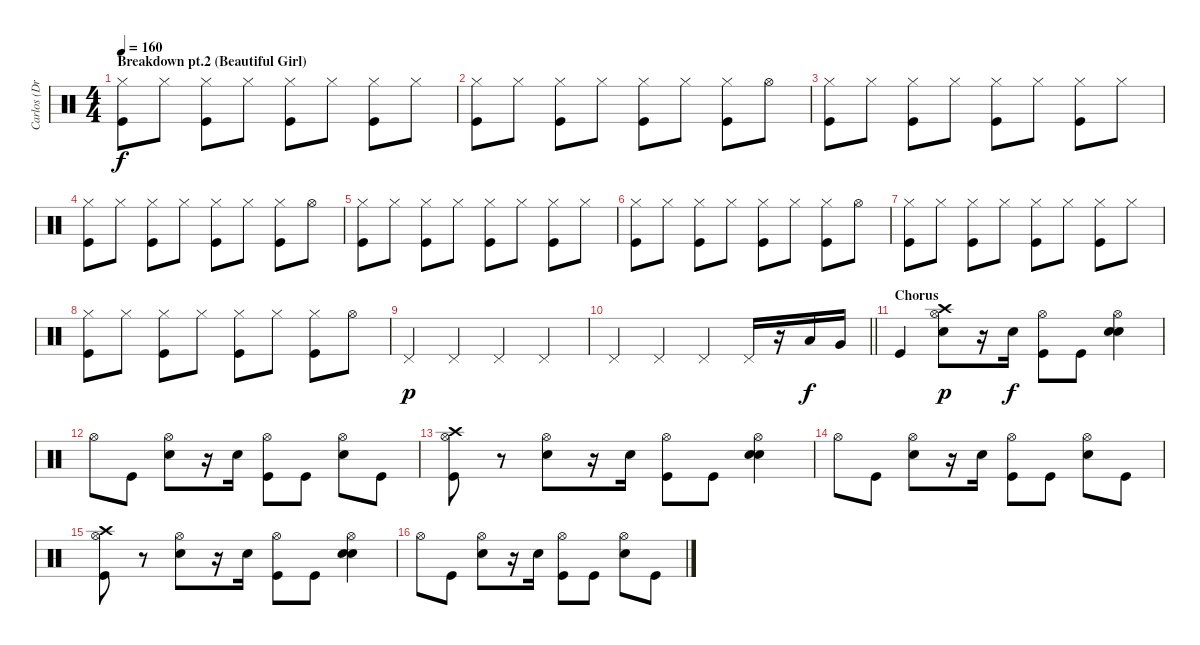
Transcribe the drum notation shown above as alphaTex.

\track ("Carlos (Drums)" "Carlos (Dr") {instrument percussion}
\staff {score}
\articulation defaults
\ts (4 4)
\section ("" "Breakdown pt.2 (Beautiful Girl)")
\tempo 160
\clef neutral
\ks c
("Hi-Hat (closed)" "Kick (hit)").8{dy f} "Hi-Hat (closed)".8 ("Hi-Hat (closed)" "Kick (hit)").8 "Hi-Hat (closed)".8 ("Hi-Hat (closed)" "Kick (hit)").8 "Hi-Hat (closed)".8 ("Hi-Hat (closed)" "Kick (hit)").8 "Hi-Hat (closed)".8 |
("Hi-Hat (closed)" "Kick (hit)").8 "Hi-Hat (closed)".8 ("Hi-Hat (closed)" "Kick (hit)").8 "Hi-Hat (closed)".8 ("Hi-Hat (closed)" "Kick (hit)").8 "Hi-Hat (closed)".8 ("Hi-Hat (closed)" "Kick (hit)").8 "Hi-Hat (open)".8 |
("Hi-Hat (closed)" "Kick (hit)").8 "Hi-Hat (closed)".8 ("Hi-Hat (closed)" "Kick (hit)").8 "Hi-Hat (closed)".8 ("Hi-Hat (closed)" "Kick (hit)").8 "Hi-Hat (closed)".8 ("Hi-Hat (closed)" "Kick (hit)").8 "Hi-Hat (closed)".8 |
("Hi-Hat (closed)" "Kick (hit)").8 "Hi-Hat (closed)".8 ("Hi-Hat (closed)" "Kick (hit)").8 "Hi-Hat (closed)".8 ("Hi-Hat (closed)" "Kick (hit)").8 "Hi-Hat (closed)".8 ("Hi-Hat (closed)" "Kick (hit)").8 "Hi-Hat (open)".8 |
("Hi-Hat (closed)" "Kick (hit)").8 "Hi-Hat (closed)".8 ("Hi-Hat (closed)" "Kick (hit)").8 "Hi-Hat (closed)".8 ("Hi-Hat (closed)" "Kick (hit)").8 "Hi-Hat (closed)".8 ("Hi-Hat (closed)" "Kick (hit)").8 "Hi-Hat (closed)".8 |
("Hi-Hat (closed)" "Kick (hit)").8 "Hi-Hat (closed)".8 ("Hi-Hat (closed)" "Kick (hit)").8 "Hi-Hat (closed)".8 ("Hi-Hat (closed)" "Kick (hit)").8 "Hi-Hat (closed)".8 ("Hi-Hat (closed)" "Kick (hit)").8 "Hi-Hat (open)".8 |
("Hi-Hat (closed)" "Kick (hit)").8 "Hi-Hat (closed)".8 ("Hi-Hat (closed)" "Kick (hit)").8 "Hi-Hat (closed)".8 ("Hi-Hat (closed)" "Kick (hit)").8 "Hi-Hat (closed)".8 ("Hi-Hat (closed)" "Kick (hit)").8 "Hi-Hat (closed)".8 |
("Hi-Hat (closed)" "Kick (hit)").8 "Hi-Hat (closed)".8 ("Hi-Hat (closed)" "Kick (hit)").8 "Hi-Hat (closed)".8 ("Hi-Hat (closed)" "Kick (hit)").8 "Hi-Hat (closed)".8 ("Hi-Hat (closed)" "Kick (hit)").8 "Hi-Hat (open)".8 |
"Pedal Hi-Hat (hit)".4{dy p} "Pedal Hi-Hat (hit)".4 "Pedal Hi-Hat (hit)".4 "Pedal Hi-Hat (hit)".4 |
\barLineRight lightlight "Pedal Hi-Hat (hit)".4 "Pedal Hi-Hat (hit)".4 "Pedal Hi-Hat (hit)".4 "Pedal Hi-Hat (hit)".16
r.16 "Low Tom (hit)".16{dy f} "Very Low Tom (hit)".16 |
\section ("" "Chorus")
"Kick (hit)".4 ("Crash high (hit)" "Hi-Hat (open)" "Snare (hit) 2").8{dy p} r.16 "Snare (hit) 2".16{dy f} ("Hi-Hat (open)" "Kick (hit)").8 "Kick (hit)".8 ("Hi-Hat (open)" "Snare (hit) 2" "Snare (hit) 2").4 |
"Hi-Hat (open)".8 "Kick (hit)".8 ("Hi-Hat (open)" "Snare (hit) 2").8 r.16 "Snare (hit) 2".16 ("Hi-Hat (open)" "Kick (hit)").8 "Kick (hit)".8 ("Hi-Hat (open)" "Snare (hit) 2").8 "Kick (hit)".8 |
("Crash high (hit)" "Hi-Hat (open)" "Kick (hit)").8 r.8 ("Hi-Hat (open)" "Snare (hit) 2").8 r.16 "Snare (hit) 2".16 ("Hi-Hat (open)" "Kick (hit)").8 "Kick (hit)".8 ("Hi-Hat (open)" "Snare (hit) 2" "Snare (hit) 2").4 |
"Hi-Hat (open)".8 "Kick (hit)".8 ("Hi-Hat (open)" "Snare (hit) 2").8 r.16 "Snare (hit) 2".16 ("Hi-Hat (open)" "Kick (hit)").8 "Kick (hit)".8 ("Hi-Hat (open)" "Snare (hit) 2").8 "Kick (hit)".8 |
("Crash high (hit)" "Hi-Hat (open)" "Kick (hit)").8 r.8 ("Hi-Hat (open)" "Snare (hit) 2").8 r.16 "Snare (hit) 2".16 ("Hi-Hat (open)" "Kick (hit)").8 "Kick (hit)".8 ("Hi-Hat (open)" "Snare (hit) 2" "Snare (hit) 2").4 |
"Hi-Hat (open)".8 "Kick (hit)".8 ("Hi-Hat (open)" "Snare (hit) 2").8 r.16 "Snare (hit) 2".16 ("Hi-Hat (open)" "Kick (hit)").8 "Kick (hit)".8 ("Hi-Hat (open)" "Snare (hit) 2").8 "Kick (hit)".8
